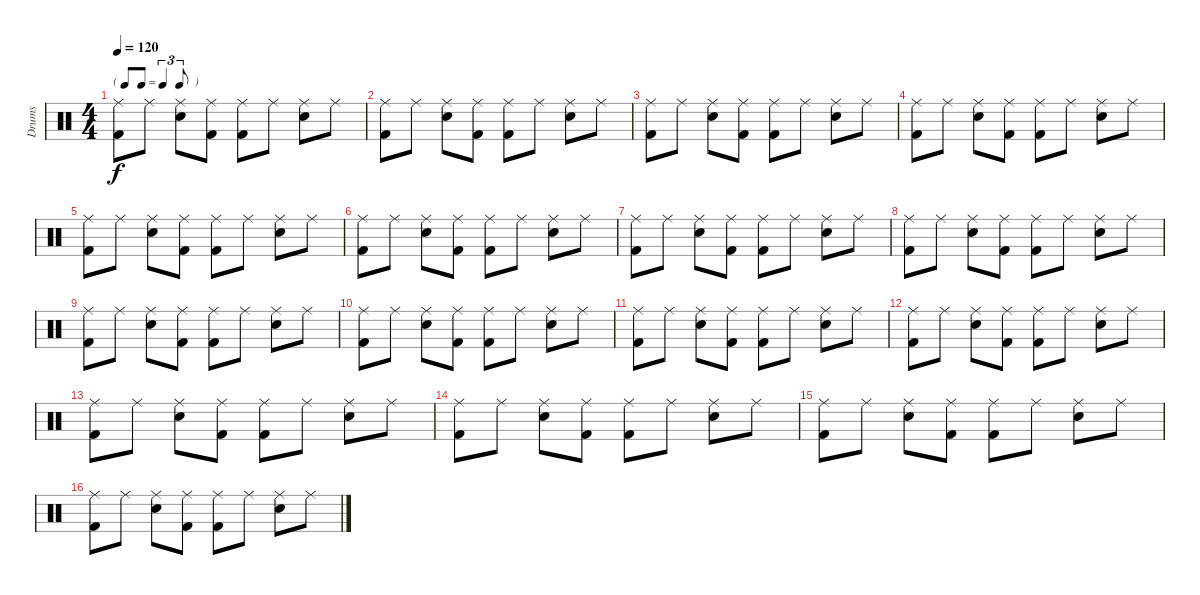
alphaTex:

\track ("Drums" "Drums") {instrument percussion}
\staff {score}
\articulation defaults
\ts (4 4)
\tf triplet8th
\tempo 120
\clef neutral
\ks c
("Ride (middle)" "Kick (hit) 2").8{dy f} "Ride (middle)".8 ("Ride (middle)" "Electric Snare (hit)").8 ("Ride (middle)" "Kick (hit) 2").8 ("Ride (middle)" "Kick (hit) 2").8 "Ride (middle)".8 ("Ride (middle)" "Electric Snare (hit)").8 "Ride (middle)".8 |
("Ride (middle)" "Kick (hit) 2").8 "Ride (middle)".8 ("Ride (middle)" "Electric Snare (hit)").8 ("Ride (middle)" "Kick (hit) 2").8 ("Ride (middle)" "Kick (hit) 2").8 "Ride (middle)".8 ("Ride (middle)" "Electric Snare (hit)").8 "Ride (middle)".8 |
("Ride (middle)" "Kick (hit) 2").8 "Ride (middle)".8 ("Ride (middle)" "Electric Snare (hit)").8 ("Ride (middle)" "Kick (hit) 2").8 ("Ride (middle)" "Kick (hit) 2").8 "Ride (middle)".8 ("Ride (middle)" "Electric Snare (hit)").8 "Ride (middle)".8 |
("Ride (middle)" "Kick (hit) 2").8 "Ride (middle)".8 ("Ride (middle)" "Electric Snare (hit)").8 ("Ride (middle)" "Kick (hit) 2").8 ("Ride (middle)" "Kick (hit) 2").8 "Ride (middle)".8 ("Ride (middle)" "Electric Snare (hit)").8 "Ride (middle)".8 |
("Ride (middle)" "Kick (hit) 2").8 "Ride (middle)".8 ("Ride (middle)" "Electric Snare (hit)").8 ("Ride (middle)" "Kick (hit) 2").8 ("Ride (middle)" "Kick (hit) 2").8 "Ride (middle)".8 ("Ride (middle)" "Electric Snare (hit)").8 "Ride (middle)".8 |
("Ride (middle)" "Kick (hit) 2").8 "Ride (middle)".8 ("Ride (middle)" "Electric Snare (hit)").8 ("Ride (middle)" "Kick (hit) 2").8 ("Ride (middle)" "Kick (hit) 2").8 "Ride (middle)".8 ("Ride (middle)" "Electric Snare (hit)").8 "Ride (middle)".8 |
("Ride (middle)" "Kick (hit) 2").8 "Ride (middle)".8 ("Ride (middle)" "Electric Snare (hit)").8 ("Ride (middle)" "Kick (hit) 2").8 ("Ride (middle)" "Kick (hit) 2").8 "Ride (middle)".8 ("Ride (middle)" "Electric Snare (hit)").8 "Ride (middle)".8 |
("Ride (middle)" "Kick (hit) 2").8 "Ride (middle)".8 ("Ride (middle)" "Electric Snare (hit)").8 ("Ride (middle)" "Kick (hit) 2").8 ("Ride (middle)" "Kick (hit) 2").8 "Ride (middle)".8 ("Ride (middle)" "Electric Snare (hit)").8 "Ride (middle)".8 |
("Ride (middle)" "Kick (hit) 2").8 "Ride (middle)".8 ("Ride (middle)" "Electric Snare (hit)").8 ("Ride (middle)" "Kick (hit) 2").8 ("Ride (middle)" "Kick (hit) 2").8 "Ride (middle)".8 ("Ride (middle)" "Electric Snare (hit)").8 "Ride (middle)".8 |
("Ride (middle)" "Kick (hit) 2").8 "Ride (middle)".8 ("Ride (middle)" "Electric Snare (hit)").8 ("Ride (middle)" "Kick (hit) 2").8 ("Ride (middle)" "Kick (hit) 2").8 "Ride (middle)".8 ("Ride (middle)" "Electric Snare (hit)").8 "Ride (middle)".8 |
("Ride (middle)" "Kick (hit) 2").8 "Ride (middle)".8 ("Ride (middle)" "Electric Snare (hit)").8 ("Ride (middle)" "Kick (hit) 2").8 ("Ride (middle)" "Kick (hit) 2").8 "Ride (middle)".8 ("Ride (middle)" "Electric Snare (hit)").8 "Ride (middle)".8 |
("Ride (middle)" "Kick (hit) 2").8 "Ride (middle)".8 ("Ride (middle)" "Electric Snare (hit)").8 ("Ride (middle)" "Kick (hit) 2").8 ("Ride (middle)" "Kick (hit) 2").8 "Ride (middle)".8 ("Ride (middle)" "Electric Snare (hit)").8 "Ride (middle)".8 |
("Ride (middle)" "Kick (hit) 2").8 "Ride (middle)".8 ("Ride (middle)" "Electric Snare (hit)").8 ("Ride (middle)" "Kick (hit) 2").8 ("Ride (middle)" "Kick (hit) 2").8 "Ride (middle)".8 ("Ride (middle)" "Electric Snare (hit)").8 "Ride (middle)".8 |
("Ride (middle)" "Kick (hit) 2").8 "Ride (middle)".8 ("Ride (middle)" "Electric Snare (hit)").8 ("Ride (middle)" "Kick (hit) 2").8 ("Ride (middle)" "Kick (hit) 2").8 "Ride (middle)".8 ("Ride (middle)" "Electric Snare (hit)").8 "Ride (middle)".8 |
("Ride (middle)" "Kick (hit) 2").8 "Ride (middle)".8 ("Ride (middle)" "Electric Snare (hit)").8 ("Ride (middle)" "Kick (hit) 2").8 ("Ride (middle)" "Kick (hit) 2").8 "Ride (middle)".8 ("Ride (middle)" "Electric Snare (hit)").8 "Ride (middle)".8 |
("Ride (middle)" "Kick (hit) 2").8 "Ride (middle)".8 ("Ride (middle)" "Electric Snare (hit)").8 ("Ride (middle)" "Kick (hit) 2").8 ("Ride (middle)" "Kick (hit) 2").8 "Ride (middle)".8 ("Ride (middle)" "Electric Snare (hit)").8 "Ride (middle)".8
